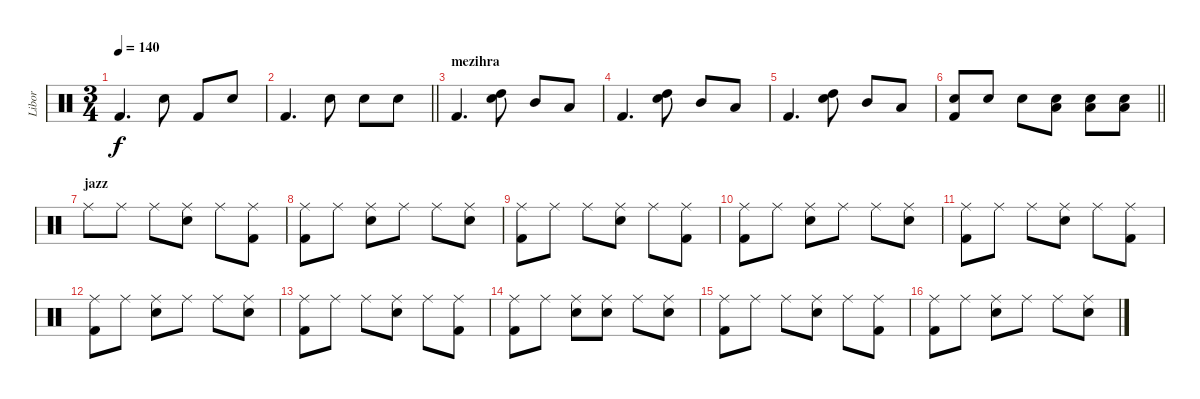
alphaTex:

\track ("Libor" "Libor") {instrument percussion}
\staff {score}
\articulation defaults
\ts (3 4)
\tempo 140
\clef neutral
\ks c "Kick (hit) 2".4{d dy f} "Snare (hit) 2".8 "Kick (hit) 2".8 "Snare (hit) 2".8
|
\barLineRight lightlight "Kick (hit) 2".4{d} "Snare (hit) 2".8 "Snare (hit) 2".8 "Snare (hit) 2".8
|
\section ("" "mezihra")
"Kick (hit) 2".4{d} ("High Tom (hit)" "Snare (hit) 2").8 "Mid Tom (hit)".8 "Low Tom (hit)".8 |
"Kick (hit) 2".4{d} ("High Tom (hit)" "Snare (hit) 2").8 "Mid Tom (hit)".8 "Low Tom (hit)".8 |
"Kick (hit) 2".4{d} ("High Tom (hit)" "Snare (hit) 2").8 "Mid Tom (hit)".8 "Low Tom (hit)".8 |
\barLineRight lightlight
("Kick (hit) 2" "Snare (hit) 2").8 "Snare (hit) 2".8 "Snare (hit) 2".8 ("Low Tom (hit)" "Snare (hit) 2").8 ("Low Tom (hit)" "Snare (hit) 2").8 ("Low Tom (hit)" "Snare (hit) 2").8 |
\section ("" "jazz")
"Ride (middle)".8 "Ride (middle)".8 "Ride (middle)".8 ("Ride (middle)" "Snare (hit) 2").8 "Ride (middle)".8 ("Ride (middle)" "Kick (hit) 2").8 |
("Ride (middle)" "Kick (hit) 2").8 "Ride (middle)".8 ("Ride (middle)" "Snare (hit) 2").8 "Ride (middle)".8 "Ride (middle)".8 ("Ride (middle)" "Snare (hit) 2").8 |
("Ride (middle)" "Kick (hit) 2").8 "Ride (middle)".8 "Ride (middle)".8 ("Ride (middle)" "Snare (hit) 2").8 "Ride (middle)".8 ("Ride (middle)" "Kick (hit) 2").8 |
("Ride (middle)" "Kick (hit) 2").8 "Ride (middle)".8 ("Ride (middle)" "Snare (hit) 2").8 "Ride (middle)".8 "Ride (middle)".8 ("Ride (middle)" "Snare (hit) 2").8 |
("Ride (middle)" "Kick (hit) 2").8 "Ride (middle)".8 "Ride (middle)".8 ("Ride (middle)" "Snare (hit) 2").8 "Ride (middle)".8 ("Ride (middle)" "Kick (hit) 2").8 |
("Ride (middle)" "Kick (hit) 2").8 "Ride (middle)".8 ("Ride (middle)" "Snare (hit) 2").8 "Ride (middle)".8 "Ride (middle)".8 ("Ride (middle)" "Snare (hit) 2").8 |
("Ride (middle)" "Kick (hit) 2").8 "Ride (middle)".8 "Ride (middle)".8 ("Ride (middle)" "Snare (hit) 2").8 "Ride (middle)".8 ("Ride (middle)" "Kick (hit) 2").8 |
("Ride (middle)" "Kick (hit) 2").8 "Ride (middle)".8 ("Ride (middle)" "Snare (hit) 2").8 ("Ride (middle)" "Snare (hit) 2").8 "Ride (middle)".8 ("Ride (middle)" "Snare (hit) 2").8 |
("Ride (middle)" "Kick (hit) 2").8 "Ride (middle)".8 "Ride (middle)".8 ("Ride (middle)" "Snare (hit) 2").8 "Ride (middle)".8 ("Ride (middle)" "Kick (hit) 2").8 |
("Ride (middle)" "Kick (hit) 2").8 "Ride (middle)".8 ("Ride (middle)" "Snare (hit) 2").8 "Ride (middle)".8 "Ride (middle)".8 ("Ride (middle)" "Snare (hit) 2").8
